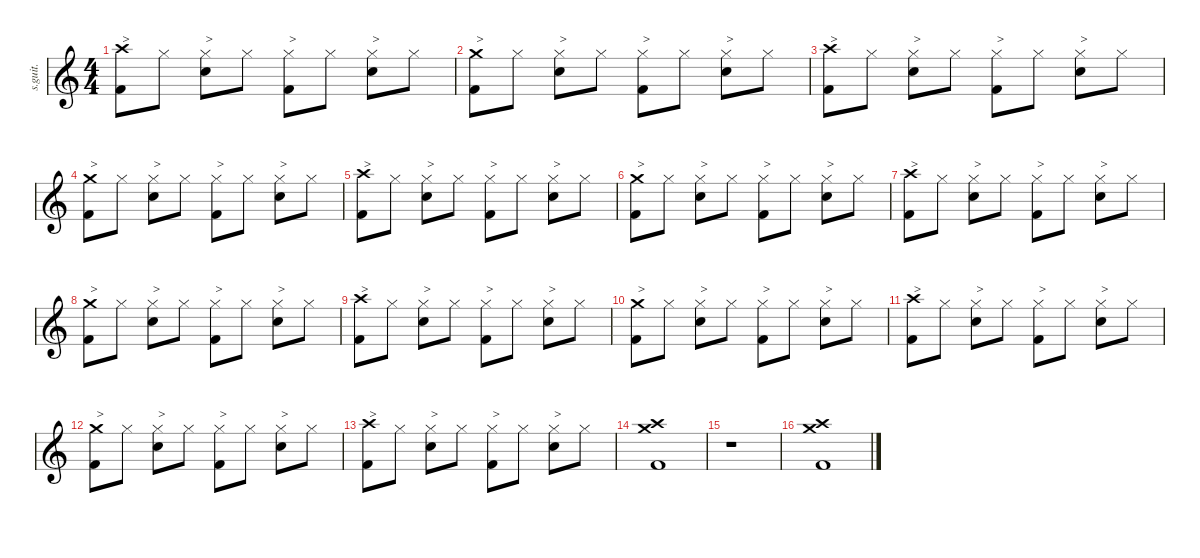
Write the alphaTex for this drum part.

\defaultSystemsLayout 4
\hideDynamics
\bracketExtendMode nobrackets
\track ("Chris Slade" "s.guit.") {instrument percussion}
\staff {score}
\articulation defaults
\ts (4 4)
\tempo (134 hide)
\clef g2
\ks c
("Crash high (hit)" "Kick (hit) 2").8{txt ">" lyrics (0 "") lyrics (1 "") lyrics (2 "") lyrics (3 "") lyrics (4 "") dy f} "Hi-Hat (closed)".8{lyrics (0 "") lyrics (1 "") lyrics (2 "") lyrics (3 "") lyrics (4 "")} ("Hi-Hat (closed)" "Snare (hit) 2").8{txt ">" lyrics (0 "") lyrics (1 "") lyrics (2 "") lyrics (3 "") lyrics (4 "")} "Hi-Hat (closed)".8{lyrics (0 "") lyrics (1 "") lyrics (2 "") lyrics (3 "") lyrics (4 "") dy mf} ("Hi-Hat (closed)" "Kick (hit) 2").8{txt ">" lyrics (0 "") lyrics (1 "") lyrics (2 "") lyrics (3 "") lyrics (4 "") dy ff} "Hi-Hat (closed)".8{lyrics (0 "") lyrics (1 "") lyrics (2 "") lyrics (3 "") lyrics (4 "") dy mf} ("Hi-Hat (closed)" "Snare (hit) 2").8{txt ">" lyrics (0 "") lyrics (1 "") lyrics (2 "") lyrics (3 "") lyrics (4 "") dy f} "Hi-Hat (closed)".8{lyrics (0 "") lyrics (1 "") lyrics (2 "") lyrics (3 "") lyrics (4 "") dy mf} |
("Crash medium (hit)" "Kick (hit) 2").8{txt ">" lyrics (0 "") lyrics (1 "") lyrics (2 "") lyrics (3 "") lyrics (4 "") dy ff} "Hi-Hat (closed)".8{lyrics (0 "") lyrics (1 "") lyrics (2 "") lyrics (3 "") lyrics (4 "") dy f} ("Hi-Hat (closed)" "Snare (hit) 2").8{txt ">" lyrics (0 "") lyrics (1 "") lyrics (2 "") lyrics (3 "") lyrics (4 "")} "Hi-Hat (closed)".8{lyrics (0 "") lyrics (1 "") lyrics (2 "") lyrics (3 "") lyrics (4 "") dy mf} ("Hi-Hat (closed)" "Kick (hit) 2").8{txt ">" lyrics (0 "") lyrics (1 "") lyrics (2 "") lyrics (3 "") lyrics (4 "") dy ff} "Hi-Hat (closed)".8{lyrics (0 "") lyrics (1 "") lyrics (2 "") lyrics (3 "") lyrics (4 "") dy mf} ("Hi-Hat (closed)" "Snare (hit) 2").8{txt ">" lyrics (0 "") lyrics (1 "") lyrics (2 "") lyrics (3 "") lyrics (4 "") dy f} "Hi-Hat (closed)".8{lyrics (0 "") lyrics (1 "") lyrics (2 "") lyrics (3 "") lyrics (4 "") dy mf} |
("Crash high (hit)" "Kick (hit) 2").8{txt ">" lyrics (0 "") lyrics (1 "") lyrics (2 "") lyrics (3 "") lyrics (4 "") dy f} "Hi-Hat (closed)".8{lyrics (0 "") lyrics (1 "") lyrics (2 "") lyrics (3 "") lyrics (4 "")} ("Hi-Hat (closed)" "Snare (hit) 2").8{txt ">" lyrics (0 "") lyrics (1 "") lyrics (2 "") lyrics (3 "") lyrics (4 "")} "Hi-Hat (closed)".8{lyrics (0 "") lyrics (1 "") lyrics (2 "") lyrics (3 "") lyrics (4 "") dy mf} ("Hi-Hat (closed)" "Kick (hit) 2").8{txt ">" lyrics (0 "") lyrics (1 "") lyrics (2 "") lyrics (3 "") lyrics (4 "") dy ff} "Hi-Hat (closed)".8{lyrics (0 "") lyrics (1 "") lyrics (2 "") lyrics (3 "") lyrics (4 "") dy mf} ("Hi-Hat (closed)" "Snare (hit) 2").8{txt ">" lyrics (0 "") lyrics (1 "") lyrics (2 "") lyrics (3 "") lyrics (4 "") dy f} "Hi-Hat (closed)".8{lyrics (0 "") lyrics (1 "") lyrics (2 "") lyrics (3 "") lyrics (4 "") dy mf} |
("Crash medium (hit)" "Kick (hit) 2").8{txt ">" lyrics (0 "") lyrics (1 "") lyrics (2 "") lyrics (3 "") lyrics (4 "") dy ff} "Hi-Hat (closed)".8{lyrics (0 "") lyrics (1 "") lyrics (2 "") lyrics (3 "") lyrics (4 "") dy f} ("Hi-Hat (closed)" "Snare (hit) 2").8{txt ">" lyrics (0 "") lyrics (1 "") lyrics (2 "") lyrics (3 "") lyrics (4 "")} "Hi-Hat (closed)".8{lyrics (0 "") lyrics (1 "") lyrics (2 "") lyrics (3 "") lyrics (4 "") dy mf} ("Hi-Hat (closed)" "Kick (hit) 2").8{txt ">" lyrics (0 "") lyrics (1 "") lyrics (2 "") lyrics (3 "") lyrics (4 "") dy ff} "Hi-Hat (closed)".8{lyrics (0 "") lyrics (1 "") lyrics (2 "") lyrics (3 "") lyrics (4 "") dy mf} ("Hi-Hat (closed)" "Snare (hit) 2").8{txt ">" lyrics (0 "") lyrics (1 "") lyrics (2 "") lyrics (3 "") lyrics (4 "") dy f} "Hi-Hat (closed)".8{lyrics (0 "") lyrics (1 "") lyrics (2 "") lyrics (3 "") lyrics (4 "") dy mf} |
("Crash high (hit)" "Kick (hit) 2").8{txt ">" lyrics (0 "") lyrics (1 "") lyrics (2 "") lyrics (3 "") lyrics (4 "") dy f} "Hi-Hat (closed)".8{lyrics (0 "") lyrics (1 "") lyrics (2 "") lyrics (3 "") lyrics (4 "")} ("Hi-Hat (closed)" "Snare (hit) 2").8{txt ">" lyrics (0 "") lyrics (1 "") lyrics (2 "") lyrics (3 "") lyrics (4 "")} "Hi-Hat (closed)".8{lyrics (0 "") lyrics (1 "") lyrics (2 "") lyrics (3 "") lyrics (4 "") dy mf} ("Hi-Hat (closed)" "Kick (hit) 2").8{txt ">" lyrics (0 "") lyrics (1 "") lyrics (2 "") lyrics (3 "") lyrics (4 "") dy ff} "Hi-Hat (closed)".8{lyrics (0 "") lyrics (1 "") lyrics (2 "") lyrics (3 "") lyrics (4 "") dy mf} ("Hi-Hat (closed)" "Snare (hit) 2").8{txt ">" lyrics (0 "") lyrics (1 "") lyrics (2 "") lyrics (3 "") lyrics (4 "") dy f} "Hi-Hat (closed)".8{lyrics (0 "") lyrics (1 "") lyrics (2 "") lyrics (3 "") lyrics (4 "") dy mf} |
("Crash medium (hit)" "Kick (hit) 2").8{txt ">" lyrics (0 "") lyrics (1 "") lyrics (2 "") lyrics (3 "") lyrics (4 "") dy ff} "Hi-Hat (closed)".8{lyrics (0 "") lyrics (1 "") lyrics (2 "") lyrics (3 "") lyrics (4 "") dy f} ("Hi-Hat (closed)" "Snare (hit) 2").8{txt ">" lyrics (0 "") lyrics (1 "") lyrics (2 "") lyrics (3 "") lyrics (4 "")} "Hi-Hat (closed)".8{lyrics (0 "") lyrics (1 "") lyrics (2 "") lyrics (3 "") lyrics (4 "") dy mf} ("Hi-Hat (closed)" "Kick (hit) 2").8{txt ">" lyrics (0 "") lyrics (1 "") lyrics (2 "") lyrics (3 "") lyrics (4 "") dy ff} "Hi-Hat (closed)".8{lyrics (0 "") lyrics (1 "") lyrics (2 "") lyrics (3 "") lyrics (4 "") dy mf} ("Hi-Hat (closed)" "Snare (hit) 2").8{txt ">" lyrics (0 "") lyrics (1 "") lyrics (2 "") lyrics (3 "") lyrics (4 "") dy f} "Hi-Hat (closed)".8{lyrics (0 "") lyrics (1 "") lyrics (2 "") lyrics (3 "") lyrics (4 "") dy mf} |
("Crash high (hit)" "Kick (hit) 2").8{txt ">" lyrics (0 "") lyrics (1 "") lyrics (2 "") lyrics (3 "") lyrics (4 "") dy f} "Hi-Hat (closed)".8{lyrics (0 "") lyrics (1 "") lyrics (2 "") lyrics (3 "") lyrics (4 "")} ("Hi-Hat (closed)" "Snare (hit) 2").8{txt ">" lyrics (0 "") lyrics (1 "") lyrics (2 "") lyrics (3 "") lyrics (4 "")} "Hi-Hat (closed)".8{lyrics (0 "") lyrics (1 "") lyrics (2 "") lyrics (3 "") lyrics (4 "") dy mf} ("Hi-Hat (closed)" "Kick (hit) 2").8{txt ">" lyrics (0 "") lyrics (1 "") lyrics (2 "") lyrics (3 "") lyrics (4 "") dy ff} "Hi-Hat (closed)".8{lyrics (0 "") lyrics (1 "") lyrics (2 "") lyrics (3 "") lyrics (4 "") dy mf} ("Hi-Hat (closed)" "Snare (hit) 2").8{txt ">" lyrics (0 "") lyrics (1 "") lyrics (2 "") lyrics (3 "") lyrics (4 "") dy f} "Hi-Hat (closed)".8{lyrics (0 "") lyrics (1 "") lyrics (2 "") lyrics (3 "") lyrics (4 "") dy mf} |
("Crash medium (hit)" "Kick (hit) 2").8{txt ">" lyrics (0 "") lyrics (1 "") lyrics (2 "") lyrics (3 "") lyrics (4 "") dy ff} "Hi-Hat (closed)".8{lyrics (0 "") lyrics (1 "") lyrics (2 "") lyrics (3 "") lyrics (4 "") dy f} ("Hi-Hat (closed)" "Snare (hit) 2").8{txt ">" lyrics (0 "") lyrics (1 "") lyrics (2 "") lyrics (3 "") lyrics (4 "")} "Hi-Hat (closed)".8{lyrics (0 "") lyrics (1 "") lyrics (2 "") lyrics (3 "") lyrics (4 "") dy mf} ("Hi-Hat (closed)" "Kick (hit) 2").8{txt ">" lyrics (0 "") lyrics (1 "") lyrics (2 "") lyrics (3 "") lyrics (4 "") dy ff} "Hi-Hat (closed)".8{lyrics (0 "") lyrics (1 "") lyrics (2 "") lyrics (3 "") lyrics (4 "") dy mf} ("Hi-Hat (closed)" "Snare (hit) 2").8{txt ">" lyrics (0 "") lyrics (1 "") lyrics (2 "") lyrics (3 "") lyrics (4 "") dy f} "Hi-Hat (closed)".8{lyrics (0 "") lyrics (1 "") lyrics (2 "") lyrics (3 "") lyrics (4 "") dy mf} |
("Crash high (hit)" "Kick (hit) 2").8{txt ">" lyrics (0 "") lyrics (1 "") lyrics (2 "") lyrics (3 "") lyrics (4 "") dy f} "Hi-Hat (closed)".8{lyrics (0 "") lyrics (1 "") lyrics (2 "") lyrics (3 "") lyrics (4 "")} ("Hi-Hat (closed)" "Snare (hit) 2").8{txt ">" lyrics (0 "") lyrics (1 "") lyrics (2 "") lyrics (3 "") lyrics (4 "")} "Hi-Hat (closed)".8{lyrics (0 "") lyrics (1 "") lyrics (2 "") lyrics (3 "") lyrics (4 "") dy mf} ("Hi-Hat (closed)" "Kick (hit) 2").8{txt ">" lyrics (0 "") lyrics (1 "") lyrics (2 "") lyrics (3 "") lyrics (4 "") dy ff} "Hi-Hat (closed)".8{lyrics (0 "") lyrics (1 "") lyrics (2 "") lyrics (3 "") lyrics (4 "") dy mf} ("Hi-Hat (closed)" "Snare (hit) 2").8{txt ">" lyrics (0 "") lyrics (1 "") lyrics (2 "") lyrics (3 "") lyrics (4 "") dy f} "Hi-Hat (closed)".8{lyrics (0 "") lyrics (1 "") lyrics (2 "") lyrics (3 "") lyrics (4 "") dy mf} |
("Crash medium (hit)" "Kick (hit) 2").8{txt ">" lyrics (0 "") lyrics (1 "") lyrics (2 "") lyrics (3 "") lyrics (4 "") dy ff} "Hi-Hat (closed)".8{lyrics (0 "") lyrics (1 "") lyrics (2 "") lyrics (3 "") lyrics (4 "") dy f} ("Hi-Hat (closed)" "Snare (hit) 2").8{txt ">" lyrics (0 "") lyrics (1 "") lyrics (2 "") lyrics (3 "") lyrics (4 "")} "Hi-Hat (closed)".8{lyrics (0 "") lyrics (1 "") lyrics (2 "") lyrics (3 "") lyrics (4 "") dy mf} ("Hi-Hat (closed)" "Kick (hit) 2").8{txt ">" lyrics (0 "") lyrics (1 "") lyrics (2 "") lyrics (3 "") lyrics (4 "") dy ff} "Hi-Hat (closed)".8{lyrics (0 "") lyrics (1 "") lyrics (2 "") lyrics (3 "") lyrics (4 "") dy mf} ("Hi-Hat (closed)" "Snare (hit) 2").8{txt ">" lyrics (0 "") lyrics (1 "") lyrics (2 "") lyrics (3 "") lyrics (4 "") dy f} "Hi-Hat (closed)".8{lyrics (0 "") lyrics (1 "") lyrics (2 "") lyrics (3 "") lyrics (4 "") dy mf} |
("Crash high (hit)" "Kick (hit) 2").8{txt ">" lyrics (0 "") lyrics (1 "") lyrics (2 "") lyrics (3 "") lyrics (4 "") dy f} "Hi-Hat (closed)".8{lyrics (0 "") lyrics (1 "") lyrics (2 "") lyrics (3 "") lyrics (4 "")} ("Hi-Hat (closed)" "Snare (hit) 2").8{txt ">" lyrics (0 "") lyrics (1 "") lyrics (2 "") lyrics (3 "") lyrics (4 "")} "Hi-Hat (closed)".8{lyrics (0 "") lyrics (1 "") lyrics (2 "") lyrics (3 "") lyrics (4 "") dy mf} ("Hi-Hat (closed)" "Kick (hit) 2").8{txt ">" lyrics (0 "") lyrics (1 "") lyrics (2 "") lyrics (3 "") lyrics (4 "") dy ff} "Hi-Hat (closed)".8{lyrics (0 "") lyrics (1 "") lyrics (2 "") lyrics (3 "") lyrics (4 "") dy mf} ("Hi-Hat (closed)" "Snare (hit) 2").8{txt ">" lyrics (0 "") lyrics (1 "") lyrics (2 "") lyrics (3 "") lyrics (4 "") dy f} "Hi-Hat (closed)".8{lyrics (0 "") lyrics (1 "") lyrics (2 "") lyrics (3 "") lyrics (4 "") dy mf} |
("Crash medium (hit)" "Kick (hit) 2").8{txt ">" lyrics (0 "") lyrics (1 "") lyrics (2 "") lyrics (3 "") lyrics (4 "") dy ff} "Hi-Hat (closed)".8{lyrics (0 "") lyrics (1 "") lyrics (2 "") lyrics (3 "") lyrics (4 "") dy f} ("Hi-Hat (closed)" "Snare (hit) 2").8{txt ">" lyrics (0 "") lyrics (1 "") lyrics (2 "") lyrics (3 "") lyrics (4 "")} "Hi-Hat (closed)".8{lyrics (0 "") lyrics (1 "") lyrics (2 "") lyrics (3 "") lyrics (4 "") dy mf} ("Hi-Hat (closed)" "Kick (hit) 2").8{txt ">" lyrics (0 "") lyrics (1 "") lyrics (2 "") lyrics (3 "") lyrics (4 "") dy ff} "Hi-Hat (closed)".8{lyrics (0 "") lyrics (1 "") lyrics (2 "") lyrics (3 "") lyrics (4 "") dy mf} ("Hi-Hat (closed)" "Snare (hit) 2").8{txt ">" lyrics (0 "") lyrics (1 "") lyrics (2 "") lyrics (3 "") lyrics (4 "") dy f} "Hi-Hat (closed)".8{lyrics (0 "") lyrics (1 "") lyrics (2 "") lyrics (3 "") lyrics (4 "") dy mf} |
("Crash high (hit)" "Kick (hit) 2").8{txt ">" lyrics (0 "") lyrics (1 "") lyrics (2 "") lyrics (3 "") lyrics (4 "") dy f} "Hi-Hat (closed)".8{lyrics (0 "") lyrics (1 "") lyrics (2 "") lyrics (3 "") lyrics (4 "")} ("Hi-Hat (closed)" "Snare (hit) 2").8{txt ">" lyrics (0 "") lyrics (1 "") lyrics (2 "") lyrics (3 "") lyrics (4 "")} "Hi-Hat (closed)".8{lyrics (0 "") lyrics (1 "") lyrics (2 "") lyrics (3 "") lyrics (4 "") dy mf} ("Hi-Hat (closed)" "Kick (hit) 2").8{txt ">" lyrics (0 "") lyrics (1 "") lyrics (2 "") lyrics (3 "") lyrics (4 "") dy ff} "Hi-Hat (closed)".8{lyrics (0 "") lyrics (1 "") lyrics (2 "") lyrics (3 "") lyrics (4 "") dy mf} ("Hi-Hat (closed)" "Snare (hit) 2").8{txt ">" lyrics (0 "") lyrics (1 "") lyrics (2 "") lyrics (3 "") lyrics (4 "") dy f} "Hi-Hat (closed)".8{lyrics (0 "") lyrics (1 "") lyrics (2 "") lyrics (3 "") lyrics (4 "") dy mf} |
\tempo (126 hide)
("Crash medium (hit)" "Crash high (hit)" "Kick (hit) 2").1{lyrics (0 "") lyrics (1 "") lyrics (2 "") lyrics (3 "") lyrics (4 "") dy ff} |
\tempo (118 hide)
r.1 |
\tempo (108 hide)
("Crash medium (hit)" "Crash high (hit)" "Kick (hit) 2").1{lyrics (0 "") lyrics (1 "") lyrics (2 "") lyrics (3 "") lyrics (4 "")}
